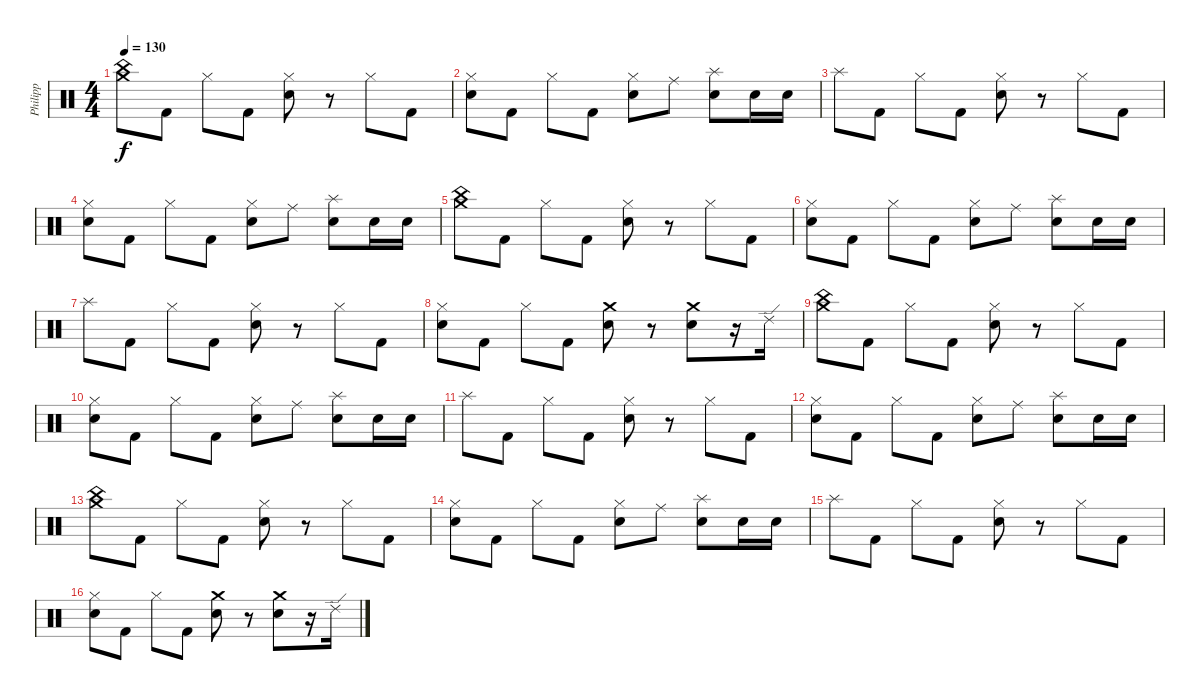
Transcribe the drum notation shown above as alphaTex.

\track ("Philipp" "Philipp") {instrument percussion}
\staff {score}
\articulation defaults
\ts (4 4)
\tempo 130
\clef neutral
\ks c
("China (hit)" "Crash medium (hit)").8{dy f} "Kick (hit) 2".8 "Hi-Hat (closed)".8 "Kick (hit) 2".8 ("Hi-Hat (closed)" "Electric Snare (hit)").8 r.8 "Hi-Hat (closed)".8 "Kick (hit) 2".8 |
("Hi-Hat (closed)" "Electric Snare (hit)").8 "Kick (hit) 2".8 "Hi-Hat (closed)".8 "Kick (hit) 2".8 ("Hi-Hat (closed)" "Electric Snare (hit)").8 "Ride (middle)".8 ("Splash (hit)" "Electric Snare (hit)").8 "Electric Snare (hit)".16 "Electric Snare (hit)".16 |
"Splash (hit)".8 "Kick (hit) 2".8 "Hi-Hat (closed)".8 "Kick (hit) 2".8 ("Hi-Hat (closed)" "Electric Snare (hit)").8 r.8 "Hi-Hat (closed)".8 "Kick (hit) 2".8 |
("Hi-Hat (closed)" "Electric Snare (hit)").8 "Kick (hit) 2".8 "Hi-Hat (closed)".8 "Kick (hit) 2".8 ("Hi-Hat (closed)" "Electric Snare (hit)").8 "Ride (middle)".8 ("Splash (hit)" "Electric Snare (hit)").8 "Electric Snare (hit)".16 "Electric Snare (hit)".16 |
("China (hit)" "Crash medium (hit)").8 "Kick (hit) 2".8 "Hi-Hat (closed)".8 "Kick (hit) 2".8 ("Hi-Hat (closed)" "Electric Snare (hit)").8 r.8 "Hi-Hat (closed)".8 "Kick (hit) 2".8 |
("Hi-Hat (closed)" "Electric Snare (hit)").8 "Kick (hit) 2".8 "Hi-Hat (closed)".8 "Kick (hit) 2".8 ("Hi-Hat (closed)" "Electric Snare (hit)").8 "Ride (middle)".8 ("Splash (hit)" "Electric Snare (hit)").8 "Electric Snare (hit)".16 "Electric Snare (hit)".16 |
"Splash (hit)".8 "Kick (hit) 2".8 "Hi-Hat (closed)".8 "Kick (hit) 2".8 ("Hi-Hat (closed)" "Electric Snare (hit)").8 r.8 "Hi-Hat (closed)".8 "Kick (hit) 2".8 |
("Hi-Hat (closed)" "Electric Snare (hit)").8 "Kick (hit) 2".8 "Hi-Hat (closed)".8 "Kick (hit) 2".8 ("Crash medium (hit)" "Electric Snare (hit)").8 r.8 ("Crash medium (hit)" "Electric Snare (hit)").8 r.16 "Ride (edge) 2".16 |
("China (hit)" "Crash medium (hit)").8 "Kick (hit) 2".8 "Hi-Hat (closed)".8 "Kick (hit) 2".8 ("Hi-Hat (closed)" "Electric Snare (hit)").8 r.8 "Hi-Hat (closed)".8 "Kick (hit) 2".8 |
("Hi-Hat (closed)" "Electric Snare (hit)").8 "Kick (hit) 2".8 "Hi-Hat (closed)".8 "Kick (hit) 2".8 ("Hi-Hat (closed)" "Electric Snare (hit)").8 "Ride (middle)".8 ("Splash (hit)" "Electric Snare (hit)").8 "Electric Snare (hit)".16 "Electric Snare (hit)".16 |
"Splash (hit)".8 "Kick (hit) 2".8 "Hi-Hat (closed)".8 "Kick (hit) 2".8 ("Hi-Hat (closed)" "Electric Snare (hit)").8 r.8 "Hi-Hat (closed)".8 "Kick (hit) 2".8 |
("Hi-Hat (closed)" "Electric Snare (hit)").8 "Kick (hit) 2".8 "Hi-Hat (closed)".8 "Kick (hit) 2".8 ("Hi-Hat (closed)" "Electric Snare (hit)").8 "Ride (middle)".8 ("Splash (hit)" "Electric Snare (hit)").8 "Electric Snare (hit)".16 "Electric Snare (hit)".16 |
("China (hit)" "Crash medium (hit)").8 "Kick (hit) 2".8 "Hi-Hat (closed)".8 "Kick (hit) 2".8 ("Hi-Hat (closed)" "Electric Snare (hit)").8 r.8 "Hi-Hat (closed)".8 "Kick (hit) 2".8 |
("Hi-Hat (closed)" "Electric Snare (hit)").8 "Kick (hit) 2".8 "Hi-Hat (closed)".8 "Kick (hit) 2".8 ("Hi-Hat (closed)" "Electric Snare (hit)").8 "Ride (middle)".8 ("Splash (hit)" "Electric Snare (hit)").8 "Electric Snare (hit)".16 "Electric Snare (hit)".16 |
"Splash (hit)".8 "Kick (hit) 2".8 "Hi-Hat (closed)".8 "Kick (hit) 2".8 ("Hi-Hat (closed)" "Electric Snare (hit)").8 r.8 "Hi-Hat (closed)".8 "Kick (hit) 2".8 |
("Hi-Hat (closed)" "Electric Snare (hit)").8 "Kick (hit) 2".8 "Hi-Hat (closed)".8 "Kick (hit) 2".8 ("Crash medium (hit)" "Electric Snare (hit)").8 r.8 ("Crash medium (hit)" "Electric Snare (hit)").8 r.16 "Ride (edge) 2".16
